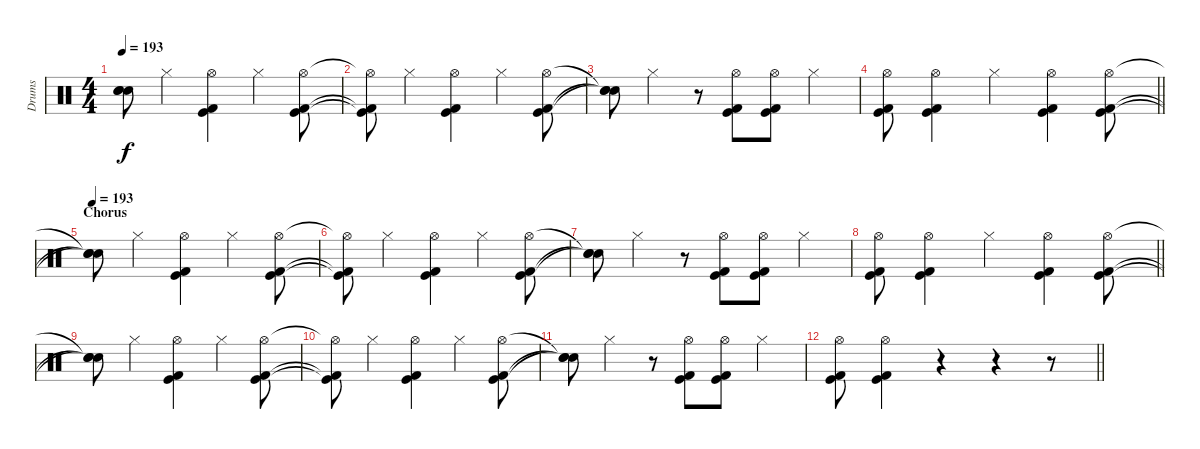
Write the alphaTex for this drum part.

\track ("Drums" "Drums") {instrument percussion}
\staff
\articulation defaults
\ts (4 4)
\tempo 193
\clef neutral
\ks c
("Snare (hit)"{t} "Snare (hit)"{t} "Snare (hit)"{t}).8{dy f} "Hi-Hat (closed)".4 ("Hi-Hat (open)" "Kick (hit)" "Kick (hit) 2").4 "Hi-Hat (closed)".4 ("Hi-Hat (open)" "Kick (hit)" "Kick (hit) 2").8 |
("Hi-Hat (open)"{t} "Kick (hit)"{t} "Kick (hit) 2"{t}).8 "Hi-Hat (closed)".4 ("Hi-Hat (open)" "Kick (hit)" "Kick (hit) 2").4 "Hi-Hat (closed)".4 ("Hi-Hat (open)" "Kick (hit)" "Kick (hit) 2").8 |
("Snare (hit)"{t} "Snare (hit)"{t} "Snare (hit)"{t}).8 "Hi-Hat (closed)".4 r.8 ("Hi-Hat (open)" "Kick (hit)" "Kick (hit) 2").8 ("Hi-Hat (open)" "Kick (hit)" "Kick (hit) 2").8 "Hi-Hat (closed)".4 |
\barLineRight lightlight
("Hi-Hat (open)" "Kick (hit)" "Kick (hit) 2").8 ("Hi-Hat (open)" "Kick (hit)" "Kick (hit) 2").4 "Hi-Hat (closed)".4 ("Hi-Hat (open)" "Kick (hit)" "Kick (hit) 2").4 ("Hi-Hat (open)" "Kick (hit)" "Kick (hit) 2").8 |
\section ("" "Chorus")
\tempo 193
("Snare (hit)"{t} "Snare (hit)"{t} "Snare (hit)"{t}).8 "Hi-Hat (closed)".4 ("Hi-Hat (open)" "Kick (hit)" "Kick (hit) 2").4 "Hi-Hat (closed)".4 ("Hi-Hat (open)" "Kick (hit)" "Kick (hit) 2").8 |
("Hi-Hat (open)"{t} "Kick (hit)"{t} "Kick (hit) 2"{t}).8 "Hi-Hat (closed)".4 ("Hi-Hat (open)" "Kick (hit)" "Kick (hit) 2").4 "Hi-Hat (closed)".4 ("Hi-Hat (open)" "Kick (hit)" "Kick (hit) 2").8 |
("Snare (hit)"{t} "Snare (hit)"{t} "Snare (hit)"{t}).8 "Hi-Hat (closed)".4 r.8 ("Hi-Hat (open)" "Kick (hit)" "Kick (hit) 2").8 ("Hi-Hat (open)" "Kick (hit)" "Kick (hit) 2").8 "Hi-Hat (closed)".4 |
\barLineRight lightlight
("Hi-Hat (open)" "Kick (hit)" "Kick (hit) 2").8 ("Hi-Hat (open)" "Kick (hit)" "Kick (hit) 2").4 "Hi-Hat (closed)".4 ("Hi-Hat (open)" "Kick (hit)" "Kick (hit) 2").4 ("Hi-Hat (open)" "Kick (hit)" "Kick (hit) 2").8 |
("Snare (hit)"{t} "Snare (hit)"{t} "Snare (hit)"{t}).8 "Hi-Hat (closed)".4 ("Hi-Hat (open)" "Kick (hit)" "Kick (hit) 2").4 "Hi-Hat (closed)".4 ("Hi-Hat (open)" "Kick (hit)" "Kick (hit) 2").8 |
("Hi-Hat (open)"{t} "Kick (hit)"{t} "Kick (hit) 2"{t}).8 "Hi-Hat (closed)".4 ("Hi-Hat (open)" "Kick (hit)" "Kick (hit) 2").4 "Hi-Hat (closed)".4 ("Hi-Hat (open)" "Kick (hit)" "Kick (hit) 2").8 |
("Snare (hit)"{t} "Snare (hit)"{t} "Snare (hit)"{t}).8 "Hi-Hat (closed)".4 r.8 ("Hi-Hat (open)" "Kick (hit)" "Kick (hit) 2").8 ("Hi-Hat (open)" "Kick (hit)" "Kick (hit) 2").8 "Hi-Hat (closed)".4 |
\barLineRight lightlight
("Hi-Hat (open)" "Kick (hit)" "Kick (hit) 2").8 ("Hi-Hat (open)" "Kick (hit)" "Kick (hit) 2").4 r.4 r.4 r.8
